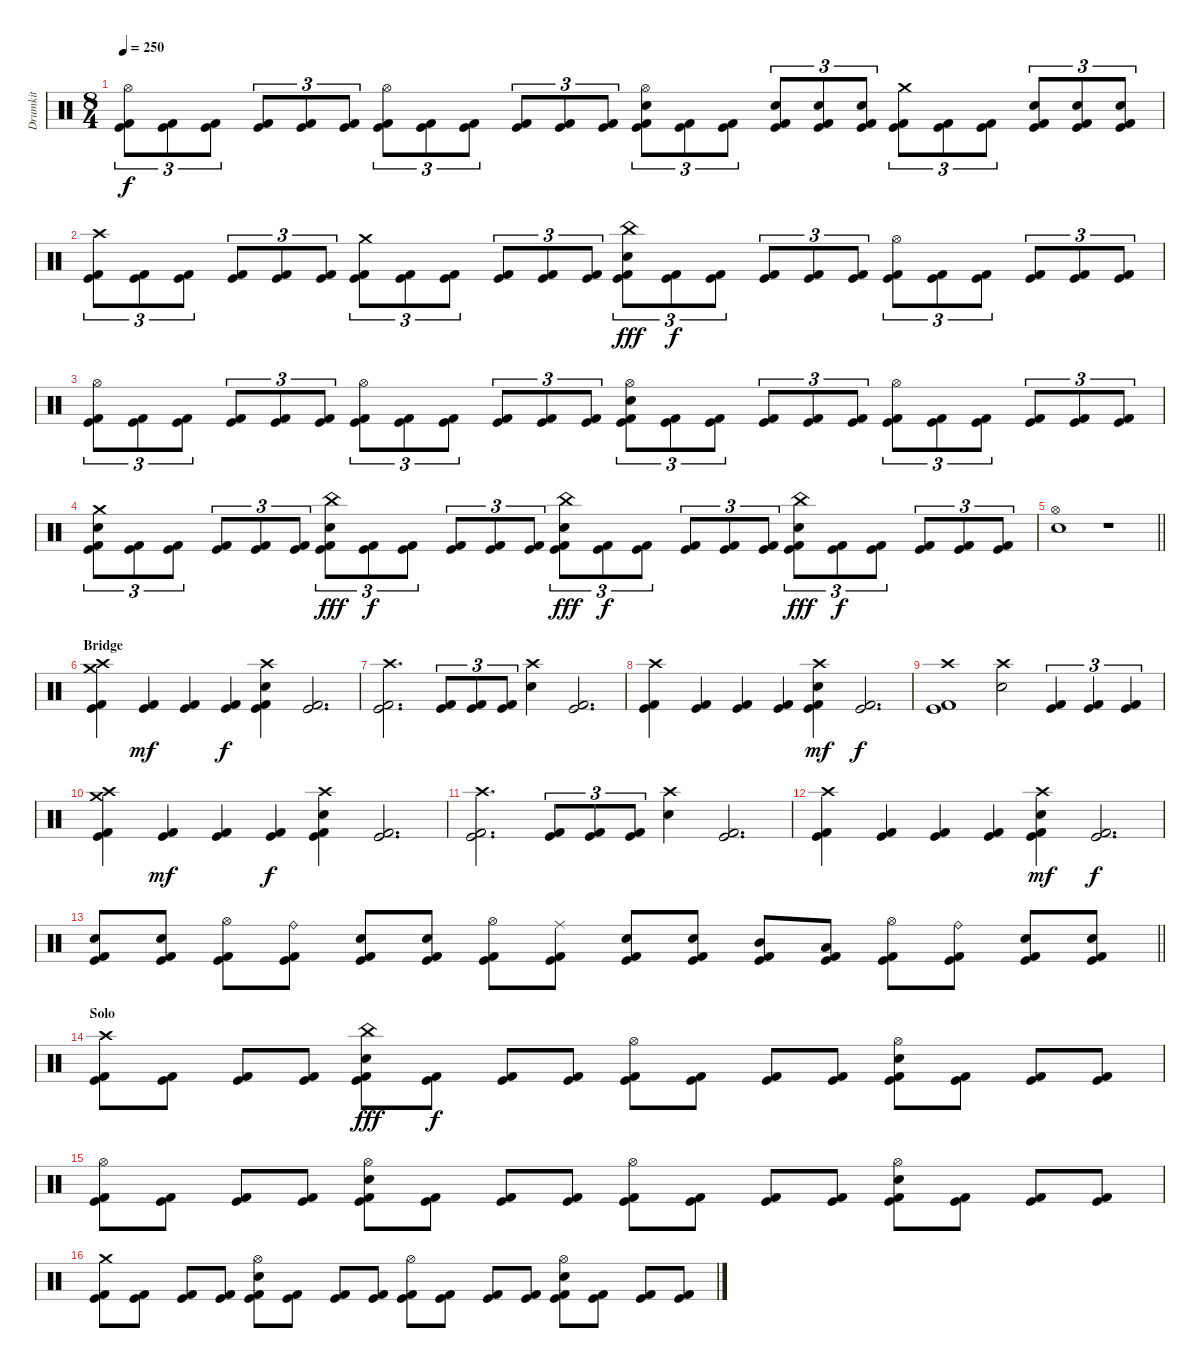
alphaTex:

\track ("Drumkit" "Drumkit") {instrument percussion}
\staff {score}
\articulation defaults
\ts (8 4)
\tempo 250
\clef neutral
\ks c
("Hi-Hat (open)" "Kick (hit)" "Kick (hit) 2").8{tu (3 2) dy f} ("Kick (hit)" "Kick (hit) 2").8{tu (3 2)} ("Kick (hit)" "Kick (hit) 2").8{tu (3 2)} ("Kick (hit)" "Kick (hit) 2").8{tu (3 2)} ("Kick (hit)" "Kick (hit) 2").8{tu (3 2)} ("Kick (hit)" "Kick (hit) 2").8{tu (3 2)} ("Hi-Hat (open)" "Kick (hit)" "Kick (hit) 2").8{tu (3 2)} ("Kick (hit)" "Kick (hit) 2").8{tu (3 2)} ("Kick (hit)" "Kick (hit) 2").8{tu (3 2)} ("Kick (hit)" "Kick (hit) 2").8{tu (3 2)} ("Kick (hit)" "Kick (hit) 2").8{tu (3 2)} ("Kick (hit)" "Kick (hit) 2").8{tu (3 2)} ("Hi-Hat (open)" "Electric Snare (hit)" "Kick (hit)" "Kick (hit) 2").8{tu (3 2)} ("Kick (hit)" "Kick (hit) 2").8{tu (3 2)} ("Kick (hit)" "Kick (hit) 2").8{tu (3 2)} ("Electric Snare (hit)" "Kick (hit)" "Kick (hit) 2").8{tu (3 2)} ("Electric Snare (hit)" "Kick (hit)" "Kick (hit) 2").8{tu (3 2)} ("Electric Snare (hit)" "Kick (hit)" "Kick (hit) 2").8{tu (3 2)} ("Crash medium (hit)" "Kick (hit)" "Kick (hit) 2").8{tu (3 2)} ("Kick (hit)" "Kick (hit) 2").8{tu (3 2)} ("Kick (hit)" "Kick (hit) 2").8{tu (3 2)} ("Electric Snare (hit)" "Kick (hit)" "Kick (hit) 2").8{tu (3 2)} ("Electric Snare (hit)" "Kick (hit)" "Kick (hit) 2").8{tu (3 2)} ("Electric Snare (hit)" "Kick (hit)" "Kick (hit) 2").8{tu (3 2)} |
("Crash high (hit)" "Kick (hit)" "Kick (hit) 2").8{tu (3 2)} ("Kick (hit)" "Kick (hit) 2").8{tu (3 2)} ("Kick (hit)" "Kick (hit) 2").8{tu (3 2)} ("Kick (hit)" "Kick (hit) 2").8{tu (3 2)} ("Kick (hit)" "Kick (hit) 2").8{tu (3 2)} ("Kick (hit)" "Kick (hit) 2").8{tu (3 2)} ("Crash medium (hit)" "Kick (hit)" "Kick (hit) 2").8{tu (3 2)} ("Kick (hit)" "Kick (hit) 2").8{tu (3 2)} ("Kick (hit)" "Kick (hit) 2").8{tu (3 2)} ("Kick (hit)" "Kick (hit) 2").8{tu (3 2)} ("Kick (hit)" "Kick (hit) 2").8{tu (3 2)} ("Kick (hit)" "Kick (hit) 2").8{tu (3 2)} ("China (hit)" "Electric Snare (hit)" "Kick (hit)" "Kick (hit) 2").8{tu (3 2) dy fff} ("Kick (hit)" "Kick (hit) 2").8{tu (3 2) dy f} ("Kick (hit)" "Kick (hit) 2").8{tu (3 2)} ("Kick (hit)" "Kick (hit) 2").8{tu (3 2)} ("Kick (hit)" "Kick (hit) 2").8{tu (3 2)} ("Kick (hit)" "Kick (hit) 2").8{tu (3 2)} ("Hi-Hat (open)" "Kick (hit)" "Kick (hit) 2").8{tu (3 2)} ("Kick (hit)" "Kick (hit) 2").8{tu (3 2)} ("Kick (hit)" "Kick (hit) 2").8{tu (3 2)} ("Kick (hit)" "Kick (hit) 2").8{tu (3 2)} ("Kick (hit)" "Kick (hit) 2").8{tu (3 2)} ("Kick (hit)" "Kick (hit) 2").8{tu (3 2)} |
("Hi-Hat (open)" "Kick (hit)" "Kick (hit) 2").8{tu (3 2)} ("Kick (hit)" "Kick (hit) 2").8{tu (3 2)} ("Kick (hit)" "Kick (hit) 2").8{tu (3 2)} ("Kick (hit)" "Kick (hit) 2").8{tu (3 2)} ("Kick (hit)" "Kick (hit) 2").8{tu (3 2)} ("Kick (hit)" "Kick (hit) 2").8{tu (3 2)} ("Hi-Hat (open)" "Kick (hit)" "Kick (hit) 2").8{tu (3 2)} ("Kick (hit)" "Kick (hit) 2").8{tu (3 2)} ("Kick (hit)" "Kick (hit) 2").8{tu (3 2)} ("Kick (hit)" "Kick (hit) 2").8{tu (3 2)} ("Kick (hit)" "Kick (hit) 2").8{tu (3 2)} ("Kick (hit)" "Kick (hit) 2").8{tu (3 2)} ("Hi-Hat (open)" "Electric Snare (hit)" "Kick (hit)" "Kick (hit) 2").8{tu (3 2)} ("Kick (hit)" "Kick (hit) 2").8{tu (3 2)} ("Kick (hit)" "Kick (hit) 2").8{tu (3 2)} ("Kick (hit)" "Kick (hit) 2").8{tu (3 2)} ("Kick (hit)" "Kick (hit) 2").8{tu (3 2)} ("Kick (hit)" "Kick (hit) 2").8{tu (3 2)} ("Hi-Hat (open)" "Kick (hit)" "Kick (hit) 2").8{tu (3 2)} ("Kick (hit)" "Kick (hit) 2").8{tu (3 2)} ("Kick (hit)" "Kick (hit) 2").8{tu (3 2)} ("Kick (hit)" "Kick (hit) 2").8{tu (3 2)} ("Kick (hit)" "Kick (hit) 2").8{tu (3 2)} ("Kick (hit)" "Kick (hit) 2").8{tu (3 2)} |
("Crash medium (hit)" "Electric Snare (hit)" "Kick (hit)" "Kick (hit) 2").8{tu (3 2)} ("Kick (hit)" "Kick (hit) 2").8{tu (3 2)} ("Kick (hit)" "Kick (hit) 2").8{tu (3 2)} ("Kick (hit)" "Kick (hit) 2").8{tu (3 2)} ("Kick (hit)" "Kick (hit) 2").8{tu (3 2)} ("Kick (hit)" "Kick (hit) 2").8{tu (3 2)} ("China (hit)" "Electric Snare (hit)" "Kick (hit)" "Kick (hit) 2").8{tu (3 2) dy fff} ("Kick (hit)" "Kick (hit) 2").8{tu (3 2) dy f} ("Kick (hit)" "Kick (hit) 2").8{tu (3 2)} ("Kick (hit)" "Kick (hit) 2").8{tu (3 2)} ("Kick (hit)" "Kick (hit) 2").8{tu (3 2)} ("Kick (hit)" "Kick (hit) 2").8{tu (3 2)} ("China (hit)" "Electric Snare (hit)" "Kick (hit)" "Kick (hit) 2").8{tu (3 2) dy fff} ("Kick (hit)" "Kick (hit) 2").8{tu (3 2) dy f} ("Kick (hit)" "Kick (hit) 2").8{tu (3 2)} ("Kick (hit)" "Kick (hit) 2").8{tu (3 2)} ("Kick (hit)" "Kick (hit) 2").8{tu (3 2)} ("Kick (hit)" "Kick (hit) 2").8{tu (3 2)} ("China (hit)" "Electric Snare (hit)" "Kick (hit)" "Kick (hit) 2").8{tu (3 2) dy fff} ("Kick (hit)" "Kick (hit) 2").8{tu (3 2) dy f} ("Kick (hit)" "Kick (hit) 2").8{tu (3 2)} ("Kick (hit)" "Kick (hit) 2").8{tu (3 2)} ("Kick (hit)" "Kick (hit) 2").8{tu (3 2)} ("Kick (hit)" "Kick (hit) 2").8{tu (3 2)} |
\barLineRight lightlight
("Hi-Hat (open)" "Electric Snare (hit)").1 r.1 |
\section ("" "Bridge")
("Crash high (hit)" "Crash medium (hit)" "Kick (hit)" "Kick (hit) 2").4 ("Kick (hit)" "Kick (hit) 2").4{dy mf} ("Kick (hit)" "Kick (hit) 2").4 ("Kick (hit)" "Kick (hit) 2").4{dy f} ("Crash high (hit)" "Electric Snare (hit)" "Kick (hit)" "Kick (hit) 2").4 ("Kick (hit)" "Kick (hit) 2").2{d} |
("Crash high (hit)" "Kick (hit)" "Kick (hit) 2").2{d} ("Kick (hit)" "Kick (hit) 2").8{tu (3 2)} ("Kick (hit)" "Kick (hit) 2").8{tu (3 2)} ("Kick (hit)" "Kick (hit) 2").8{tu (3 2)} ("Crash high (hit)" "Electric Snare (hit)").4 ("Kick (hit)" "Kick (hit) 2").2{d} |
("Crash high (hit)" "Kick (hit)" "Kick (hit) 2").4 ("Kick (hit)" "Kick (hit) 2").4 ("Kick (hit)" "Kick (hit) 2").4 ("Kick (hit)" "Kick (hit) 2").4 ("Crash high (hit)" "Electric Snare (hit)" "Kick (hit)" "Kick (hit) 2").4{dy mf} ("Kick (hit)" "Kick (hit) 2").2{d dy f} |
("Crash high (hit)" "Kick (hit)" "Kick (hit) 2").1 ("Crash high (hit)" "Electric Snare (hit)").2 ("Kick (hit)" "Kick (hit) 2").4{tu (3 2)} ("Kick (hit)" "Kick (hit) 2").4{tu (3 2)} ("Kick (hit)" "Kick (hit) 2").4{tu (3 2)} |
("Crash high (hit)" "Crash medium (hit)" "Kick (hit)" "Kick (hit) 2").4 ("Kick (hit)" "Kick (hit) 2").4{dy mf} ("Kick (hit)" "Kick (hit) 2").4 ("Kick (hit)" "Kick (hit) 2").4{dy f} ("Crash high (hit)" "Electric Snare (hit)" "Kick (hit)" "Kick (hit) 2").4 ("Kick (hit)" "Kick (hit) 2").2{d} |
("Crash high (hit)" "Kick (hit)" "Kick (hit) 2").2{d} ("Kick (hit)" "Kick (hit) 2").8{tu (3 2)} ("Kick (hit)" "Kick (hit) 2").8{tu (3 2)} ("Kick (hit)" "Kick (hit) 2").8{tu (3 2)} ("Crash high (hit)" "Electric Snare (hit)").4 ("Kick (hit)" "Kick (hit) 2").2{d} |
("Crash high (hit)" "Kick (hit)" "Kick (hit) 2").4 ("Kick (hit)" "Kick (hit) 2").4 ("Kick (hit)" "Kick (hit) 2").4 ("Kick (hit)" "Kick (hit) 2").4 ("Crash high (hit)" "Electric Snare (hit)" "Kick (hit)" "Kick (hit) 2").4{dy mf} ("Kick (hit)" "Kick (hit) 2").2{d dy f} |
\barLineRight lightlight
("Electric Snare (hit)" "Kick (hit)" "Kick (hit) 2").8 ("Electric Snare (hit)" "Kick (hit)" "Kick (hit) 2").8 ("Hi-Hat (open)" "Kick (hit)" "Kick (hit) 2").8 ("Ride (bell)" "Kick (hit)" "Kick (hit) 2").8 ("Electric Snare (hit)" "Kick (hit)" "Kick (hit) 2").8 ("Electric Snare (hit)" "Kick (hit)" "Kick (hit) 2").8 ("Hi-Hat (open)" "Kick (hit)" "Kick (hit) 2").8 ("Ride (middle)" "Kick (hit)" "Kick (hit) 2").8 ("Electric Snare (hit)" "Kick (hit)" "Kick (hit) 2").8 ("Electric Snare (hit)" "Kick (hit)" "Kick (hit) 2").8 ("Mid Tom (hit)" "Kick (hit)" "Kick (hit) 2").8 ("Low Tom (hit)" "Kick (hit)" "Kick (hit) 2").8 ("Hi-Hat (open)" "Kick (hit)" "Kick (hit) 2").8 ("Ride (bell)" "Kick (hit)" "Kick (hit) 2").8 ("Electric Snare (hit)" "Kick (hit)" "Kick (hit) 2").8 ("Electric Snare (hit)" "Kick (hit)" "Kick (hit) 2").8 |
\section ("" "Solo")
("Crash high (hit)" "Kick (hit)" "Kick (hit) 2").8 ("Kick (hit)" "Kick (hit) 2").8 ("Kick (hit)" "Kick (hit) 2").8 ("Kick (hit)" "Kick (hit) 2").8 ("China (hit)" "Electric Snare (hit)" "Kick (hit)" "Kick (hit) 2").8{dy fff} ("Kick (hit)" "Kick (hit) 2").8{dy f} ("Kick (hit)" "Kick (hit) 2").8 ("Kick (hit)" "Kick (hit) 2").8 ("Hi-Hat (open)" "Kick (hit)" "Kick (hit) 2").8 ("Kick (hit)" "Kick (hit) 2").8 ("Kick (hit)" "Kick (hit) 2").8 ("Kick (hit)" "Kick (hit) 2").8 ("Hi-Hat (open)" "Electric Snare (hit)" "Kick (hit)" "Kick (hit) 2").8 ("Kick (hit)" "Kick (hit) 2").8 ("Kick (hit)" "Kick (hit) 2").8 ("Kick (hit)" "Kick (hit) 2").8 |
("Hi-Hat (open)" "Kick (hit)" "Kick (hit) 2").8 ("Kick (hit)" "Kick (hit) 2").8 ("Kick (hit)" "Kick (hit) 2").8 ("Kick (hit)" "Kick (hit) 2").8 ("Hi-Hat (open)" "Electric Snare (hit)" "Kick (hit)" "Kick (hit) 2").8 ("Kick (hit)" "Kick (hit) 2").8 ("Kick (hit)" "Kick (hit) 2").8 ("Kick (hit)" "Kick (hit) 2").8 ("Hi-Hat (open)" "Kick (hit)" "Kick (hit) 2").8 ("Kick (hit)" "Kick (hit) 2").8 ("Kick (hit)" "Kick (hit) 2").8 ("Kick (hit)" "Kick (hit) 2").8 ("Hi-Hat (open)" "Electric Snare (hit)" "Kick (hit)" "Kick (hit) 2").8 ("Kick (hit)" "Kick (hit) 2").8 ("Kick (hit)" "Kick (hit) 2").8 ("Kick (hit)" "Kick (hit) 2").8 |
("Crash medium (hit)" "Kick (hit)" "Kick (hit) 2").8 ("Kick (hit)" "Kick (hit) 2").8 ("Kick (hit)" "Kick (hit) 2").8 ("Kick (hit)" "Kick (hit) 2").8 ("Hi-Hat (open)" "Electric Snare (hit)" "Kick (hit)" "Kick (hit) 2").8 ("Kick (hit)" "Kick (hit) 2").8 ("Kick (hit)" "Kick (hit) 2").8 ("Kick (hit)" "Kick (hit) 2").8 ("Hi-Hat (open)" "Kick (hit)" "Kick (hit) 2").8 ("Kick (hit)" "Kick (hit) 2").8 ("Kick (hit)" "Kick (hit) 2").8 ("Kick (hit)" "Kick (hit) 2").8 ("Hi-Hat (open)" "Electric Snare (hit)" "Kick (hit)" "Kick (hit) 2").8 ("Kick (hit)" "Kick (hit) 2").8 ("Kick (hit)" "Kick (hit) 2").8 ("Kick (hit)" "Kick (hit) 2").8
